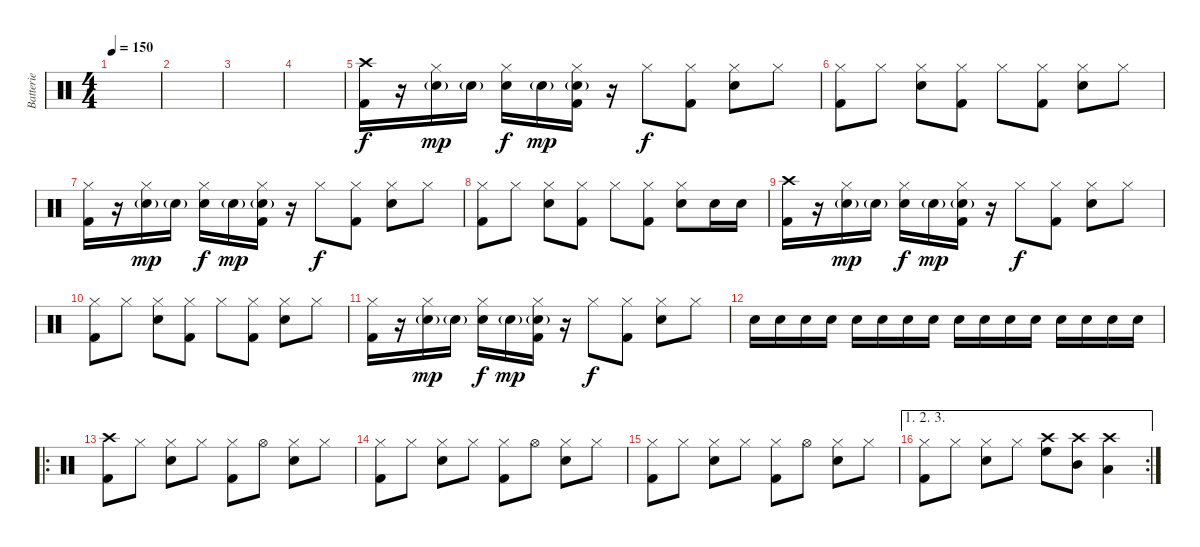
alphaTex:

\track ("Batterie" "Batterie") {instrument percussion}
\staff {score}
\articulation defaults
\ts (4 4)
\tempo 150
\clef neutral
\ks c
|
|
|
|
("Crash high (hit)" "Kick (hit) 2").16 r.16 ("Hi-Hat (closed)" "Snare (hit) 2"{g}).16{dy mp} "Snare (hit) 2"{g}.16 ("Hi-Hat (closed)" "Snare (hit) 2").16{dy f} "Snare (hit) 2"{g}.16{dy mp} ("Hi-Hat (closed)" "Snare (hit) 2"{g} "Kick (hit) 2").16 r.16 "Hi-Hat (closed)".8{dy f} ("Hi-Hat (closed)" "Kick (hit) 2").8 ("Hi-Hat (closed)" "Snare (hit) 2").8 "Hi-Hat (closed)".8 |
("Hi-Hat (closed)" "Kick (hit) 2").8 "Hi-Hat (closed)".8 ("Hi-Hat (closed)" "Snare (hit) 2").8 ("Hi-Hat (closed)" "Kick (hit) 2").8 "Hi-Hat (closed)".8 ("Hi-Hat (closed)" "Kick (hit) 2").8 ("Hi-Hat (closed)" "Snare (hit) 2").8 "Hi-Hat (closed)".8 |
("Hi-Hat (closed)" "Kick (hit) 2").16 r.16 ("Hi-Hat (closed)" "Snare (hit) 2"{g}).16{dy mp} "Snare (hit) 2"{g}.16 ("Hi-Hat (closed)" "Snare (hit) 2").16{dy f} "Snare (hit) 2"{g}.16{dy mp} ("Hi-Hat (closed)" "Snare (hit) 2"{g} "Kick (hit) 2").16 r.16 "Hi-Hat (closed)".8{dy f} ("Hi-Hat (closed)" "Kick (hit) 2").8 ("Hi-Hat (closed)" "Snare (hit) 2").8 "Hi-Hat (closed)".8 |
("Hi-Hat (closed)" "Kick (hit) 2").8 "Hi-Hat (closed)".8 ("Hi-Hat (closed)" "Snare (hit) 2").8 ("Hi-Hat (closed)" "Kick (hit) 2").8 "Hi-Hat (closed)".8 ("Hi-Hat (closed)" "Kick (hit) 2").8 ("Hi-Hat (closed)" "Snare (hit) 2").8 "Snare (hit) 2".16 "Snare (hit) 2".16 |
("Crash high (hit)" "Kick (hit) 2").16 r.16 ("Hi-Hat (closed)" "Snare (hit) 2"{g}).16{dy mp} "Snare (hit) 2"{g}.16 ("Hi-Hat (closed)" "Snare (hit) 2").16{dy f} "Snare (hit) 2"{g}.16{dy mp} ("Hi-Hat (closed)" "Snare (hit) 2"{g} "Kick (hit) 2").16 r.16 "Hi-Hat (closed)".8{dy f} ("Hi-Hat (closed)" "Kick (hit) 2").8 ("Hi-Hat (closed)" "Snare (hit) 2").8 "Hi-Hat (closed)".8 |
("Hi-Hat (closed)" "Kick (hit) 2").8 "Hi-Hat (closed)".8 ("Hi-Hat (closed)" "Snare (hit) 2").8 ("Hi-Hat (closed)" "Kick (hit) 2").8 "Hi-Hat (closed)".8 ("Hi-Hat (closed)" "Kick (hit) 2").8 ("Hi-Hat (closed)" "Snare (hit) 2").8 "Hi-Hat (closed)".8 |
("Hi-Hat (closed)" "Kick (hit) 2").16 r.16 ("Hi-Hat (closed)" "Snare (hit) 2"{g}).16{dy mp} "Snare (hit) 2"{g}.16 ("Hi-Hat (closed)" "Snare (hit) 2").16{dy f} "Snare (hit) 2"{g}.16{dy mp} ("Hi-Hat (closed)" "Snare (hit) 2"{g} "Kick (hit) 2").16 r.16 "Hi-Hat (closed)".8{dy f} ("Hi-Hat (closed)" "Kick (hit) 2").8 ("Hi-Hat (closed)" "Snare (hit) 2").8 "Hi-Hat (closed)".8 |
"Snare (hit) 2".16 "Snare (hit) 2".16 "Snare (hit) 2".16 "Snare (hit) 2".16 "Snare (hit) 2".16 "Snare (hit) 2".16 "Snare (hit) 2".16 "Snare (hit) 2".16 "Snare (hit) 2".16 "Snare (hit) 2".16 "Snare (hit) 2".16 "Snare (hit) 2".16 "Snare (hit) 2".16 "Snare (hit) 2".16 "Snare (hit) 2".16 "Snare (hit) 2".16 |
\ro
("Crash high (hit)" "Kick (hit) 2").8 "Hi-Hat (closed)".8 ("Hi-Hat (closed)" "Snare (hit) 2").8 "Hi-Hat (closed)".8 ("Hi-Hat (closed)" "Kick (hit) 2").8 "Hi-Hat (open)".8 ("Hi-Hat (closed)" "Snare (hit) 2").8 "Hi-Hat (closed)".8 |
("Hi-Hat (closed)" "Kick (hit) 2").8 "Hi-Hat (closed)".8 ("Hi-Hat (closed)" "Snare (hit) 2").8 "Hi-Hat (closed)".8 ("Hi-Hat (closed)" "Kick (hit) 2").8 "Hi-Hat (open)".8 ("Hi-Hat (closed)" "Snare (hit) 2").8 "Hi-Hat (closed)".8 |
("Hi-Hat (closed)" "Kick (hit) 2").8 "Hi-Hat (closed)".8 ("Hi-Hat (closed)" "Snare (hit) 2").8 "Hi-Hat (closed)".8 ("Hi-Hat (closed)" "Kick (hit) 2").8 "Hi-Hat (open)".8 ("Hi-Hat (closed)" "Snare (hit) 2").8 "Hi-Hat (closed)".8 |
\ae (1 2 3)
\rc 2
("Hi-Hat (closed)" "Kick (hit) 2").8 "Hi-Hat (closed)".8 ("Hi-Hat (closed)" "Snare (hit) 2").8 "Hi-Hat (closed)".8 ("Crash high (hit)" "High Floor Tom (hit)").8 ("Crash high (hit)" "Mid Tom (hit)").8 ("Crash high (hit)" "Low Tom (hit)").4
